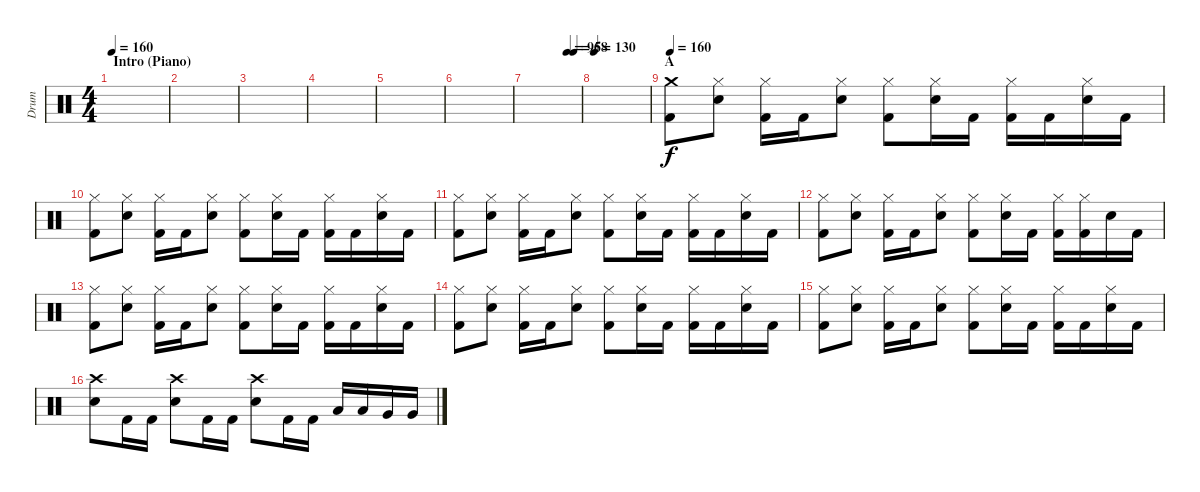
\track ("Drum" "Drum") {instrument percussion}
\staff {score}
\articulation defaults
\ts (4 4)
\section ("" "Intro (Piano)")
\tempo 160
\tempo 130
\tempo 160
\clef neutral
\ks c
|
|
|
|
|
|
\tempo (95 0.75)
\tempo (68 0.875)
|
\tempo 130
|
\section ("" "A")
\tempo 160
("Crash medium (hit)" "Kick (hit) 2").8 ("Hi-Hat (closed)" "Snare (hit) 2").8 ("Hi-Hat (closed)" "Kick (hit) 2").16 "Kick (hit) 2".16 ("Hi-Hat (closed)" "Snare (hit) 2").8 ("Hi-Hat (closed)" "Kick (hit) 2").8 ("Hi-Hat (closed)" "Snare (hit) 2").16 "Kick (hit) 2".16 ("Hi-Hat (closed)" "Kick (hit) 2").16 "Kick (hit) 2".16 ("Hi-Hat (closed)" "Snare (hit) 2").16 "Kick (hit) 2".16 |
("Hi-Hat (closed)" "Kick (hit) 2").8 ("Hi-Hat (closed)" "Snare (hit) 2").8 ("Hi-Hat (closed)" "Kick (hit) 2").16 "Kick (hit) 2".16 ("Hi-Hat (closed)" "Snare (hit) 2").8 ("Hi-Hat (closed)" "Kick (hit) 2").8 ("Hi-Hat (closed)" "Snare (hit) 2").16 "Kick (hit) 2".16 ("Hi-Hat (closed)" "Kick (hit) 2").16 "Kick (hit) 2".16 ("Hi-Hat (closed)" "Snare (hit) 2").16 "Kick (hit) 2".16 |
("Hi-Hat (closed)" "Kick (hit) 2").8 ("Hi-Hat (closed)" "Snare (hit) 2").8 ("Hi-Hat (closed)" "Kick (hit) 2").16 "Kick (hit) 2".16 ("Hi-Hat (closed)" "Snare (hit) 2").8 ("Hi-Hat (closed)" "Kick (hit) 2").8 ("Hi-Hat (closed)" "Snare (hit) 2").16 "Kick (hit) 2".16 ("Hi-Hat (closed)" "Kick (hit) 2").16 "Kick (hit) 2".16 ("Hi-Hat (closed)" "Snare (hit) 2").16 "Kick (hit) 2".16 |
("Hi-Hat (closed)" "Kick (hit) 2").8 ("Hi-Hat (closed)" "Snare (hit) 2").8 ("Hi-Hat (closed)" "Kick (hit) 2").16 "Kick (hit) 2".16 ("Hi-Hat (closed)" "Snare (hit) 2").8 ("Hi-Hat (closed)" "Kick (hit) 2").8 ("Hi-Hat (closed)" "Snare (hit) 2").16 "Kick (hit) 2".16 ("Hi-Hat (closed)" "Kick (hit) 2").16 ("Hi-Hat (closed)" "Kick (hit) 2").16 "Snare (hit) 2".16 "Kick (hit) 2".16 |
("Hi-Hat (closed)" "Kick (hit) 2").8 ("Hi-Hat (closed)" "Snare (hit) 2").8 ("Hi-Hat (closed)" "Kick (hit) 2").16 "Kick (hit) 2".16 ("Hi-Hat (closed)" "Snare (hit) 2").8 ("Hi-Hat (closed)" "Kick (hit) 2").8 ("Hi-Hat (closed)" "Snare (hit) 2").16 "Kick (hit) 2".16 ("Hi-Hat (closed)" "Kick (hit) 2").16 "Kick (hit) 2".16 ("Hi-Hat (closed)" "Snare (hit) 2").16 "Kick (hit) 2".16 |
("Hi-Hat (closed)" "Kick (hit) 2").8 ("Hi-Hat (closed)" "Snare (hit) 2").8 ("Hi-Hat (closed)" "Kick (hit) 2").16 "Kick (hit) 2".16 ("Hi-Hat (closed)" "Snare (hit) 2").8 ("Hi-Hat (closed)" "Kick (hit) 2").8 ("Hi-Hat (closed)" "Snare (hit) 2").16 "Kick (hit) 2".16 ("Hi-Hat (closed)" "Kick (hit) 2").16 "Kick (hit) 2".16 ("Hi-Hat (closed)" "Snare (hit) 2").16 "Kick (hit) 2".16 |
("Hi-Hat (closed)" "Kick (hit) 2").8 ("Hi-Hat (closed)" "Snare (hit) 2").8 ("Hi-Hat (closed)" "Kick (hit) 2").16 "Kick (hit) 2".16 ("Hi-Hat (closed)" "Snare (hit) 2").8 ("Hi-Hat (closed)" "Kick (hit) 2").8 ("Hi-Hat (closed)" "Snare (hit) 2").16 "Kick (hit) 2".16 ("Hi-Hat (closed)" "Kick (hit) 2").16 "Kick (hit) 2".16 ("Hi-Hat (closed)" "Snare (hit) 2").16 "Kick (hit) 2".16 |
("Crash high (hit)" "Snare (hit) 2").8 "Kick (hit) 2".16 "Kick (hit) 2".16 ("Crash high (hit)" "Snare (hit) 2").8 "Kick (hit) 2".16 "Kick (hit) 2".16 ("Crash high (hit)" "Snare (hit) 2").8 "Kick (hit) 2".16 "Kick (hit) 2".16 "Low Tom (hit)".16 "Low Tom (hit)".16 "Very Low Tom (hit)".16 "Very Low Tom (hit)".16
